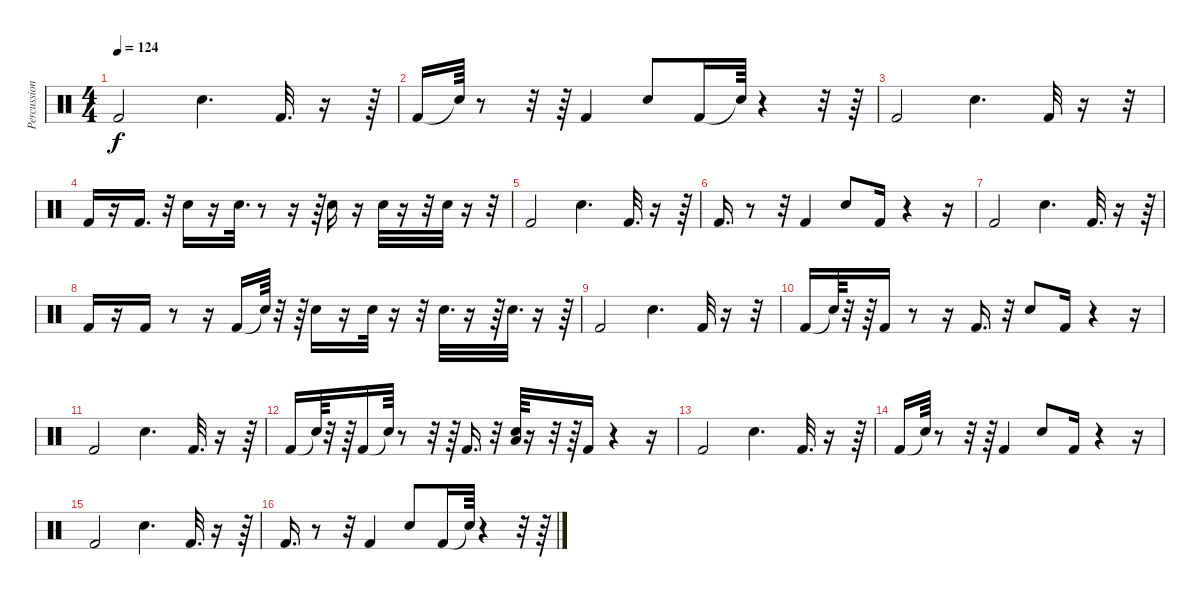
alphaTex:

\track ("Percussion" "Percussion") {instrument percussion}
\staff {score}
\articulation defaults
\ts (4 4)
\tempo 124
\clef neutral
\ks c "Kick (hit) 2".2{dy f} "Electric Snare (hit)".4{d} "Kick (hit) 2".32{d}
r.16 r.64 |
"Kick (hit) 2".16 "Snare (hit)"{t}.64 r.8 r.32 r.64 "Kick (hit) 2".4 "Electric Snare (hit)".8 "Kick (hit) 2".16 "Snare (hit)"{t}.64 r.4 r.32 r.64 |
"Kick (hit) 2".2 "Electric Snare (hit)".4{d} "Kick (hit) 2".32 r.16 r.32 |
"Kick (hit) 2".16 r.16 "Kick (hit) 2".16{d} r.32 "Electric Snare (hit)".16 r.16 "Electric Snare (hit)".32{d} r.8 r.16 r.64 "Electric Snare (hit)".16 r.16 "Electric Snare (hit)".32 r.16 r.32 "Electric Snare (hit)".32 r.16 r.32 |
"Kick (hit) 2".2 "Electric Snare (hit)".4{d} "Kick (hit) 2".32{d} r.16 r.64 |
"Kick (hit) 2".16{d} r.8 r.32 "Kick (hit) 2".4 "Electric Snare (hit)".8 "Kick (hit) 2".16 r.4 r.16 |
"Kick (hit) 2".2 "Electric Snare (hit)".4{d} "Kick (hit) 2".32{d} r.16 r.64 |
"Kick (hit) 2".16 r.16 "Kick (hit) 2".16 r.8 r.16 "Kick (hit) 2".16 "Snare (hit)"{t}.64 r.32 r.64 "Electric Snare (hit)".16 r.16 "Electric Snare (hit)".32 r.16 r.32 "Electric Snare (hit)".32{d} r.16 r.64 "Electric Snare (hit)".32{d} r.16 r.64 |
"Kick (hit) 2".2 "Electric Snare (hit)".4{d} "Kick (hit) 2".32 r.16 r.32 |
"Kick (hit) 2".16 "Snare (hit)"{t}.64 r.32 r.64 "Kick (hit) 2".16 r.8 r.16 "Kick (hit) 2".16{d} r.32 "Electric Snare (hit)".8 "Kick (hit) 2".16 r.4 r.16 |
"Kick (hit) 2".2 "Electric Snare (hit)".4{d} "Kick (hit) 2".32{d} r.16 r.64 |
"Kick (hit) 2".16 "Snare (hit)"{t}.64 r.32 r.64 "Kick (hit) 2".16 "Snare (hit)"{t}.64 r.8 r.32 r.64 "Kick (hit) 2".16{d} r.32 ("Electric Snare (hit)" "Low Floor Tom (hit)").64 r.16 r.32 r.64 "Kick (hit) 2".16 r.4 r.16 |
"Kick (hit) 2".2 "Electric Snare (hit)".4{d} "Kick (hit) 2".32{d} r.16 r.64 |
"Kick (hit) 2".16 "Snare (hit)"{t}.64 r.8 r.32 r.64 "Kick (hit) 2".4 "Electric Snare (hit)".8 "Kick (hit) 2".16 r.4 r.16 |
"Kick (hit) 2".2 "Electric Snare (hit)".4{d} "Kick (hit) 2".32{d} r.16 r.64 |
"Kick (hit) 2".16{d} r.8 r.32 "Kick (hit) 2".4 "Electric Snare (hit)".8 "Kick (hit) 2".16 "Snare (hit)"{t}.64 r.4 r.32 r.64
